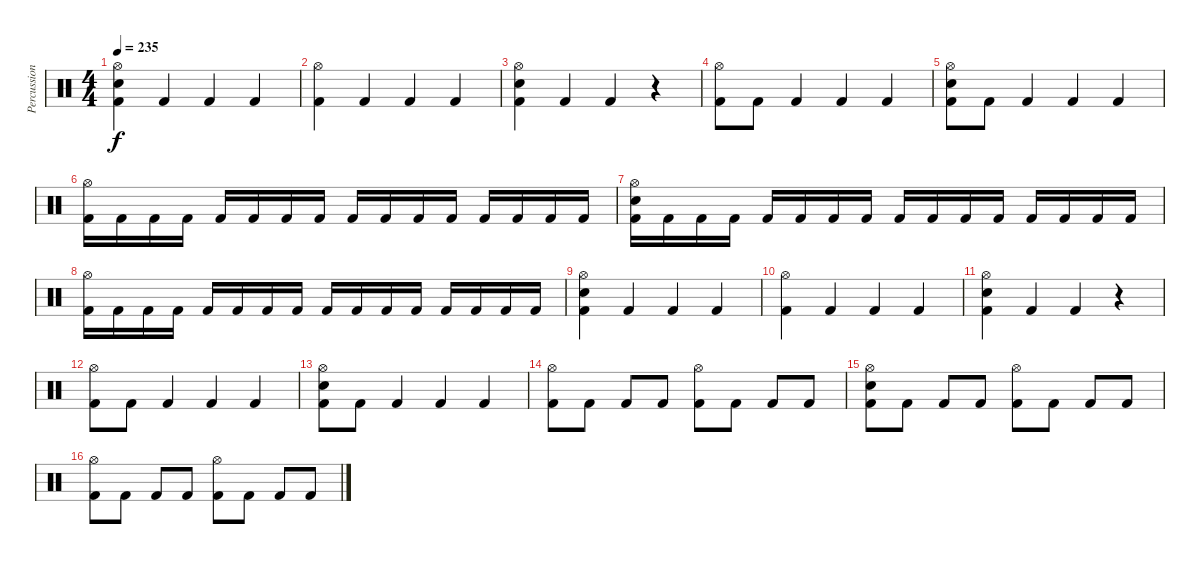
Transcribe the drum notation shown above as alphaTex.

\track ("Percussion" "Percussion") {instrument percussion}
\staff {score}
\articulation defaults
\ts (4 4)
\tempo 235
\clef neutral
\ks c
("Hi-Hat (open)" "Electric Snare (hit)" "Kick (hit) 2").4{dy f} "Kick (hit) 2".4 "Kick (hit) 2".4 "Kick (hit) 2".4 |
("Hi-Hat (open)" "Kick (hit) 2").4 "Kick (hit) 2".4 "Kick (hit) 2".4 "Kick (hit) 2".4 |
("Hi-Hat (open)" "Electric Snare (hit)" "Kick (hit) 2").4 "Kick (hit) 2".4 "Kick (hit) 2".4 r.4 |
("Hi-Hat (open)" "Kick (hit) 2").8 "Kick (hit) 2".8 "Kick (hit) 2".4 "Kick (hit) 2".4 "Kick (hit) 2".4 |
("Hi-Hat (open)" "Electric Snare (hit)" "Kick (hit) 2").8 "Kick (hit) 2".8 "Kick (hit) 2".4 "Kick (hit) 2".4 "Kick (hit) 2".4 |
("Hi-Hat (open)" "Kick (hit) 2").16 "Kick (hit) 2".16 "Kick (hit) 2".16 "Kick (hit) 2".16 "Kick (hit) 2".16 "Kick (hit) 2".16 "Kick (hit) 2".16 "Kick (hit) 2".16 "Kick (hit) 2".16 "Kick (hit) 2".16 "Kick (hit) 2".16 "Kick (hit) 2".16 "Kick (hit) 2".16 "Kick (hit) 2".16 "Kick (hit) 2".16 "Kick (hit) 2".16 |
("Hi-Hat (open)" "Electric Snare (hit)" "Kick (hit) 2").16 "Kick (hit) 2".16 "Kick (hit) 2".16 "Kick (hit) 2".16 "Kick (hit) 2".16 "Kick (hit) 2".16 "Kick (hit) 2".16 "Kick (hit) 2".16 "Kick (hit) 2".16 "Kick (hit) 2".16 "Kick (hit) 2".16 "Kick (hit) 2".16 "Kick (hit) 2".16 "Kick (hit) 2".16 "Kick (hit) 2".16 "Kick (hit) 2".16 |
("Hi-Hat (open)" "Kick (hit) 2").16 "Kick (hit) 2".16 "Kick (hit) 2".16 "Kick (hit) 2".16 "Kick (hit) 2".16 "Kick (hit) 2".16 "Kick (hit) 2".16 "Kick (hit) 2".16 "Kick (hit) 2".16 "Kick (hit) 2".16 "Kick (hit) 2".16 "Kick (hit) 2".16 "Kick (hit) 2".16 "Kick (hit) 2".16 "Kick (hit) 2".16 "Kick (hit) 2".16 |
("Hi-Hat (open)" "Electric Snare (hit)" "Kick (hit) 2").4 "Kick (hit) 2".4 "Kick (hit) 2".4 "Kick (hit) 2".4 |
("Hi-Hat (open)" "Kick (hit) 2").4 "Kick (hit) 2".4 "Kick (hit) 2".4 "Kick (hit) 2".4 |
("Hi-Hat (open)" "Electric Snare (hit)" "Kick (hit) 2").4 "Kick (hit) 2".4 "Kick (hit) 2".4 r.4 |
("Hi-Hat (open)" "Kick (hit) 2").8 "Kick (hit) 2".8 "Kick (hit) 2".4 "Kick (hit) 2".4 "Kick (hit) 2".4 |
("Hi-Hat (open)" "Electric Snare (hit)" "Kick (hit) 2").8 "Kick (hit) 2".8 "Kick (hit) 2".4 "Kick (hit) 2".4 "Kick (hit) 2".4 |
("Hi-Hat (open)" "Kick (hit) 2").8 "Kick (hit) 2".8 "Kick (hit) 2".8 "Kick (hit) 2".8 ("Hi-Hat (open)" "Kick (hit) 2").8 "Kick (hit) 2".8 "Kick (hit) 2".8 "Kick (hit) 2".8 |
("Hi-Hat (open)" "Electric Snare (hit)" "Kick (hit) 2").8 "Kick (hit) 2".8 "Kick (hit) 2".8 "Kick (hit) 2".8 ("Hi-Hat (open)" "Kick (hit) 2").8 "Kick (hit) 2".8 "Kick (hit) 2".8 "Kick (hit) 2".8 |
("Hi-Hat (open)" "Kick (hit) 2").8 "Kick (hit) 2".8 "Kick (hit) 2".8 "Kick (hit) 2".8 ("Hi-Hat (open)" "Kick (hit) 2").8 "Kick (hit) 2".8 "Kick (hit) 2".8 "Kick (hit) 2".8
